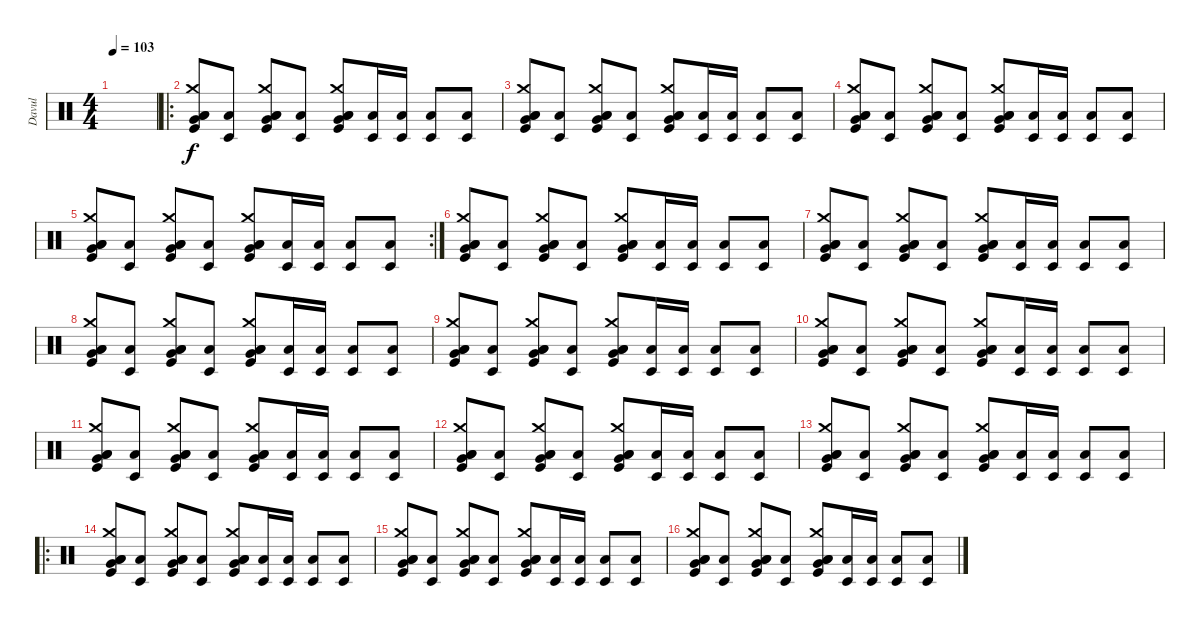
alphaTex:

\track ("Davul" "Davul") {instrument percussion}
\staff {score}
\articulation defaults
\ts (4 4)
\tempo 103
\clef neutral
\ks c
|
\ro
("Kick (hit)" "Low Tom (hit)" "Low Floor Tom (hit)" "Very Low Tom (hit)" "Crash medium (hit)").8 ("Timbale low (hit)" "Low Floor Tom (hit)").8 ("Kick (hit)" "Low Tom (hit)" "Low Floor Tom (hit)" "Very Low Tom (hit)" "Crash medium (hit)").8 ("Timbale low (hit)" "Low Floor Tom (hit)").8 ("Kick (hit)" "Low Tom (hit)" "Low Floor Tom (hit)" "Very Low Tom (hit)" "Crash medium (hit)").8 ("Timbale low (hit)" "Low Floor Tom (hit)").16 ("Timbale low (hit)" "Low Floor Tom (hit)").16 ("Timbale low (hit)" "Low Floor Tom (hit)").8 ("Timbale low (hit)" "Low Floor Tom (hit)").8 |
("Kick (hit)" "Low Tom (hit)" "Low Floor Tom (hit)" "Very Low Tom (hit)" "Crash medium (hit)").8 ("Timbale low (hit)" "Low Floor Tom (hit)").8 ("Kick (hit)" "Low Tom (hit)" "Low Floor Tom (hit)" "Very Low Tom (hit)" "Crash medium (hit)").8 ("Timbale low (hit)" "Low Floor Tom (hit)").8 ("Kick (hit)" "Low Tom (hit)" "Low Floor Tom (hit)" "Very Low Tom (hit)" "Crash medium (hit)").8 ("Timbale low (hit)" "Low Floor Tom (hit)").16 ("Timbale low (hit)" "Low Floor Tom (hit)").16 ("Timbale low (hit)" "Low Floor Tom (hit)").8 ("Timbale low (hit)" "Low Floor Tom (hit)").8 |
("Kick (hit)" "Low Tom (hit)" "Low Floor Tom (hit)" "Very Low Tom (hit)" "Crash medium (hit)").8 ("Timbale low (hit)" "Low Floor Tom (hit)").8 ("Kick (hit)" "Low Tom (hit)" "Low Floor Tom (hit)" "Very Low Tom (hit)" "Crash medium (hit)").8 ("Timbale low (hit)" "Low Floor Tom (hit)").8 ("Kick (hit)" "Low Tom (hit)" "Low Floor Tom (hit)" "Very Low Tom (hit)" "Crash medium (hit)").8 ("Timbale low (hit)" "Low Floor Tom (hit)").16 ("Timbale low (hit)" "Low Floor Tom (hit)").16 ("Timbale low (hit)" "Low Floor Tom (hit)").8 ("Timbale low (hit)" "Low Floor Tom (hit)").8 |
\rc 2
("Kick (hit)" "Low Tom (hit)" "Low Floor Tom (hit)" "Very Low Tom (hit)" "Crash medium (hit)").8 ("Timbale low (hit)" "Low Floor Tom (hit)").8 ("Kick (hit)" "Low Tom (hit)" "Low Floor Tom (hit)" "Very Low Tom (hit)" "Crash medium (hit)").8 ("Timbale low (hit)" "Low Floor Tom (hit)").8 ("Kick (hit)" "Low Tom (hit)" "Low Floor Tom (hit)" "Very Low Tom (hit)" "Crash medium (hit)").8 ("Timbale low (hit)" "Low Floor Tom (hit)").16 ("Timbale low (hit)" "Low Floor Tom (hit)").16 ("Timbale low (hit)" "Low Floor Tom (hit)").8 ("Timbale low (hit)" "Low Floor Tom (hit)").8 |
("Kick (hit)" "Low Tom (hit)" "Low Floor Tom (hit)" "Very Low Tom (hit)" "Crash medium (hit)").8 ("Timbale low (hit)" "Low Floor Tom (hit)").8 ("Kick (hit)" "Low Tom (hit)" "Low Floor Tom (hit)" "Very Low Tom (hit)" "Crash medium (hit)").8 ("Timbale low (hit)" "Low Floor Tom (hit)").8 ("Kick (hit)" "Low Tom (hit)" "Low Floor Tom (hit)" "Very Low Tom (hit)" "Crash medium (hit)").8 ("Timbale low (hit)" "Low Floor Tom (hit)").16 ("Timbale low (hit)" "Low Floor Tom (hit)").16 ("Timbale low (hit)" "Low Floor Tom (hit)").8 ("Timbale low (hit)" "Low Floor Tom (hit)").8 |
("Kick (hit)" "Low Tom (hit)" "Low Floor Tom (hit)" "Very Low Tom (hit)" "Crash medium (hit)").8 ("Timbale low (hit)" "Low Floor Tom (hit)").8 ("Kick (hit)" "Low Tom (hit)" "Low Floor Tom (hit)" "Very Low Tom (hit)" "Crash medium (hit)").8 ("Timbale low (hit)" "Low Floor Tom (hit)").8 ("Kick (hit)" "Low Tom (hit)" "Low Floor Tom (hit)" "Very Low Tom (hit)" "Crash medium (hit)").8 ("Timbale low (hit)" "Low Floor Tom (hit)").16 ("Timbale low (hit)" "Low Floor Tom (hit)").16 ("Timbale low (hit)" "Low Floor Tom (hit)").8 ("Timbale low (hit)" "Low Floor Tom (hit)").8 |
("Kick (hit)" "Low Tom (hit)" "Low Floor Tom (hit)" "Very Low Tom (hit)" "Crash medium (hit)").8 ("Timbale low (hit)" "Low Floor Tom (hit)").8 ("Kick (hit)" "Low Tom (hit)" "Low Floor Tom (hit)" "Very Low Tom (hit)" "Crash medium (hit)").8 ("Timbale low (hit)" "Low Floor Tom (hit)").8 ("Kick (hit)" "Low Tom (hit)" "Low Floor Tom (hit)" "Very Low Tom (hit)" "Crash medium (hit)").8 ("Timbale low (hit)" "Low Floor Tom (hit)").16 ("Timbale low (hit)" "Low Floor Tom (hit)").16 ("Timbale low (hit)" "Low Floor Tom (hit)").8 ("Timbale low (hit)" "Low Floor Tom (hit)").8 |
("Kick (hit)" "Low Tom (hit)" "Low Floor Tom (hit)" "Very Low Tom (hit)" "Crash medium (hit)").8 ("Timbale low (hit)" "Low Floor Tom (hit)").8 ("Kick (hit)" "Low Tom (hit)" "Low Floor Tom (hit)" "Very Low Tom (hit)" "Crash medium (hit)").8 ("Timbale low (hit)" "Low Floor Tom (hit)").8 ("Kick (hit)" "Low Tom (hit)" "Low Floor Tom (hit)" "Very Low Tom (hit)" "Crash medium (hit)").8 ("Timbale low (hit)" "Low Floor Tom (hit)").16 ("Timbale low (hit)" "Low Floor Tom (hit)").16 ("Timbale low (hit)" "Low Floor Tom (hit)").8 ("Timbale low (hit)" "Low Floor Tom (hit)").8 |
("Kick (hit)" "Low Tom (hit)" "Low Floor Tom (hit)" "Very Low Tom (hit)" "Crash medium (hit)").8 ("Timbale low (hit)" "Low Floor Tom (hit)").8 ("Kick (hit)" "Low Tom (hit)" "Low Floor Tom (hit)" "Very Low Tom (hit)" "Crash medium (hit)").8 ("Timbale low (hit)" "Low Floor Tom (hit)").8 ("Kick (hit)" "Low Tom (hit)" "Low Floor Tom (hit)" "Very Low Tom (hit)" "Crash medium (hit)").8 ("Timbale low (hit)" "Low Floor Tom (hit)").16 ("Timbale low (hit)" "Low Floor Tom (hit)").16 ("Timbale low (hit)" "Low Floor Tom (hit)").8 ("Timbale low (hit)" "Low Floor Tom (hit)").8 |
("Kick (hit)" "Low Tom (hit)" "Low Floor Tom (hit)" "Very Low Tom (hit)" "Crash medium (hit)").8 ("Timbale low (hit)" "Low Floor Tom (hit)").8 ("Kick (hit)" "Low Tom (hit)" "Low Floor Tom (hit)" "Very Low Tom (hit)" "Crash medium (hit)").8 ("Timbale low (hit)" "Low Floor Tom (hit)").8 ("Kick (hit)" "Low Tom (hit)" "Low Floor Tom (hit)" "Very Low Tom (hit)" "Crash medium (hit)").8 ("Timbale low (hit)" "Low Floor Tom (hit)").16 ("Timbale low (hit)" "Low Floor Tom (hit)").16 ("Timbale low (hit)" "Low Floor Tom (hit)").8 ("Timbale low (hit)" "Low Floor Tom (hit)").8 |
("Kick (hit)" "Low Tom (hit)" "Low Floor Tom (hit)" "Very Low Tom (hit)" "Crash medium (hit)").8 ("Timbale low (hit)" "Low Floor Tom (hit)").8 ("Kick (hit)" "Low Tom (hit)" "Low Floor Tom (hit)" "Very Low Tom (hit)" "Crash medium (hit)").8 ("Timbale low (hit)" "Low Floor Tom (hit)").8 ("Kick (hit)" "Low Tom (hit)" "Low Floor Tom (hit)" "Very Low Tom (hit)" "Crash medium (hit)").8 ("Timbale low (hit)" "Low Floor Tom (hit)").16 ("Timbale low (hit)" "Low Floor Tom (hit)").16 ("Timbale low (hit)" "Low Floor Tom (hit)").8 ("Timbale low (hit)" "Low Floor Tom (hit)").8 |
("Kick (hit)" "Low Tom (hit)" "Low Floor Tom (hit)" "Very Low Tom (hit)" "Crash medium (hit)").8 ("Timbale low (hit)" "Low Floor Tom (hit)").8 ("Kick (hit)" "Low Tom (hit)" "Low Floor Tom (hit)" "Very Low Tom (hit)" "Crash medium (hit)").8 ("Timbale low (hit)" "Low Floor Tom (hit)").8 ("Kick (hit)" "Low Tom (hit)" "Low Floor Tom (hit)" "Very Low Tom (hit)" "Crash medium (hit)").8 ("Timbale low (hit)" "Low Floor Tom (hit)").16 ("Timbale low (hit)" "Low Floor Tom (hit)").16 ("Timbale low (hit)" "Low Floor Tom (hit)").8 ("Timbale low (hit)" "Low Floor Tom (hit)").8 |
\ro
("Kick (hit)" "Low Tom (hit)" "Low Floor Tom (hit)" "Very Low Tom (hit)" "Crash medium (hit)").8 ("Timbale low (hit)" "Low Floor Tom (hit)").8 ("Kick (hit)" "Low Tom (hit)" "Low Floor Tom (hit)" "Very Low Tom (hit)" "Crash medium (hit)").8 ("Timbale low (hit)" "Low Floor Tom (hit)").8 ("Kick (hit)" "Low Tom (hit)" "Low Floor Tom (hit)" "Very Low Tom (hit)" "Crash medium (hit)").8 ("Timbale low (hit)" "Low Floor Tom (hit)").16 ("Timbale low (hit)" "Low Floor Tom (hit)").16 ("Timbale low (hit)" "Low Floor Tom (hit)").8 ("Timbale low (hit)" "Low Floor Tom (hit)").8 |
("Kick (hit)" "Low Tom (hit)" "Low Floor Tom (hit)" "Very Low Tom (hit)" "Crash medium (hit)").8 ("Timbale low (hit)" "Low Floor Tom (hit)").8 ("Kick (hit)" "Low Tom (hit)" "Low Floor Tom (hit)" "Very Low Tom (hit)" "Crash medium (hit)").8 ("Timbale low (hit)" "Low Floor Tom (hit)").8 ("Kick (hit)" "Low Tom (hit)" "Low Floor Tom (hit)" "Very Low Tom (hit)" "Crash medium (hit)").8 ("Timbale low (hit)" "Low Floor Tom (hit)").16 ("Timbale low (hit)" "Low Floor Tom (hit)").16 ("Timbale low (hit)" "Low Floor Tom (hit)").8 ("Timbale low (hit)" "Low Floor Tom (hit)").8 |
("Kick (hit)" "Low Tom (hit)" "Low Floor Tom (hit)" "Very Low Tom (hit)" "Crash medium (hit)").8 ("Timbale low (hit)" "Low Floor Tom (hit)").8 ("Kick (hit)" "Low Tom (hit)" "Low Floor Tom (hit)" "Very Low Tom (hit)" "Crash medium (hit)").8 ("Timbale low (hit)" "Low Floor Tom (hit)").8 ("Kick (hit)" "Low Tom (hit)" "Low Floor Tom (hit)" "Very Low Tom (hit)" "Crash medium (hit)").8 ("Timbale low (hit)" "Low Floor Tom (hit)").16 ("Timbale low (hit)" "Low Floor Tom (hit)").16 ("Timbale low (hit)" "Low Floor Tom (hit)").8 ("Timbale low (hit)" "Low Floor Tom (hit)").8
